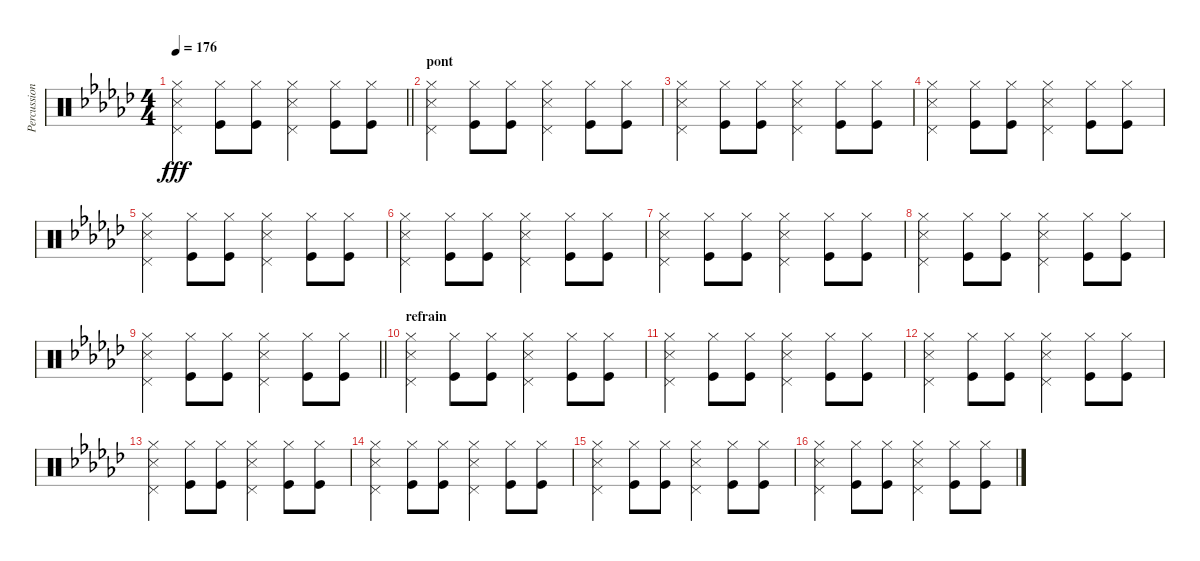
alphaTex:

\track ("Percussions" "Percussion") {instrument percussion}
\staff {score}
\articulation defaults
\ts (4 4)
\tempo 176
\clef neutral
\barLineRight lightlight
\ks gb
("Snare (side stick) 3" "Pedal Hi-Hat (hit)" "Hi-Hat (closed)").4{dy fff} ("Kick (hit)" "Hi-Hat (closed)").8 ("Kick (hit)" "Hi-Hat (closed)").8 ("Snare (side stick) 3" "Pedal Hi-Hat (hit)" "Hi-Hat (closed)").4 ("Kick (hit)" "Hi-Hat (closed)").8 ("Kick (hit)" "Hi-Hat (closed)").8 |
\section ("" "pont")
("Snare (side stick) 3" "Pedal Hi-Hat (hit)" "Hi-Hat (closed)").4 ("Kick (hit)" "Hi-Hat (closed)").8 ("Kick (hit)" "Hi-Hat (closed)").8 ("Snare (side stick) 3" "Pedal Hi-Hat (hit)" "Hi-Hat (closed)").4 ("Kick (hit)" "Hi-Hat (closed)").8 ("Kick (hit)" "Hi-Hat (closed)").8 |
("Snare (side stick) 3" "Pedal Hi-Hat (hit)" "Hi-Hat (closed)").4 ("Kick (hit)" "Hi-Hat (closed)").8 ("Kick (hit)" "Hi-Hat (closed)").8 ("Snare (side stick) 3" "Pedal Hi-Hat (hit)" "Hi-Hat (closed)").4 ("Kick (hit)" "Hi-Hat (closed)").8 ("Kick (hit)" "Hi-Hat (closed)").8 |
("Snare (side stick) 3" "Pedal Hi-Hat (hit)" "Hi-Hat (closed)").4 ("Kick (hit)" "Hi-Hat (closed)").8 ("Kick (hit)" "Hi-Hat (closed)").8 ("Snare (side stick) 3" "Pedal Hi-Hat (hit)" "Hi-Hat (closed)").4 ("Kick (hit)" "Hi-Hat (closed)").8 ("Kick (hit)" "Hi-Hat (closed)").8 |
("Snare (side stick) 3" "Pedal Hi-Hat (hit)" "Hi-Hat (closed)").4 ("Kick (hit)" "Hi-Hat (closed)").8 ("Kick (hit)" "Hi-Hat (closed)").8 ("Snare (side stick) 3" "Pedal Hi-Hat (hit)" "Hi-Hat (closed)").4 ("Kick (hit)" "Hi-Hat (closed)").8 ("Kick (hit)" "Hi-Hat (closed)").8 |
("Snare (side stick) 3" "Pedal Hi-Hat (hit)" "Hi-Hat (closed)").4 ("Kick (hit)" "Hi-Hat (closed)").8 ("Kick (hit)" "Hi-Hat (closed)").8 ("Snare (side stick) 3" "Pedal Hi-Hat (hit)" "Hi-Hat (closed)").4 ("Kick (hit)" "Hi-Hat (closed)").8 ("Kick (hit)" "Hi-Hat (closed)").8 |
("Snare (side stick) 3" "Pedal Hi-Hat (hit)" "Hi-Hat (closed)").4 ("Kick (hit)" "Hi-Hat (closed)").8 ("Kick (hit)" "Hi-Hat (closed)").8 ("Snare (side stick) 3" "Pedal Hi-Hat (hit)" "Hi-Hat (closed)").4 ("Kick (hit)" "Hi-Hat (closed)").8 ("Kick (hit)" "Hi-Hat (closed)").8 |
("Snare (side stick) 3" "Pedal Hi-Hat (hit)" "Hi-Hat (closed)").4 ("Kick (hit)" "Hi-Hat (closed)").8 ("Kick (hit)" "Hi-Hat (closed)").8 ("Snare (side stick) 3" "Pedal Hi-Hat (hit)" "Hi-Hat (closed)").4 ("Kick (hit)" "Hi-Hat (closed)").8 ("Kick (hit)" "Hi-Hat (closed)").8 |
\barLineRight lightlight
("Snare (side stick) 3" "Pedal Hi-Hat (hit)" "Hi-Hat (closed)").4 ("Kick (hit)" "Hi-Hat (closed)").8 ("Kick (hit)" "Hi-Hat (closed)").8 ("Snare (side stick) 3" "Pedal Hi-Hat (hit)" "Hi-Hat (closed)").4 ("Kick (hit)" "Hi-Hat (closed)").8 ("Kick (hit)" "Hi-Hat (closed)").8 |
\section ("" "refrain")
("Snare (side stick) 3" "Pedal Hi-Hat (hit)" "Hi-Hat (closed)").4 ("Kick (hit)" "Hi-Hat (closed)").8 ("Kick (hit)" "Hi-Hat (closed)").8 ("Snare (side stick) 3" "Pedal Hi-Hat (hit)" "Hi-Hat (closed)").4 ("Kick (hit)" "Hi-Hat (closed)").8 ("Kick (hit)" "Hi-Hat (closed)").8 |
("Snare (side stick) 3" "Pedal Hi-Hat (hit)" "Hi-Hat (closed)").4 ("Kick (hit)" "Hi-Hat (closed)").8 ("Kick (hit)" "Hi-Hat (closed)").8 ("Snare (side stick) 3" "Pedal Hi-Hat (hit)" "Hi-Hat (closed)").4 ("Kick (hit)" "Hi-Hat (closed)").8 ("Kick (hit)" "Hi-Hat (closed)").8 |
("Snare (side stick) 3" "Pedal Hi-Hat (hit)" "Hi-Hat (closed)").4 ("Kick (hit)" "Hi-Hat (closed)").8 ("Kick (hit)" "Hi-Hat (closed)").8 ("Snare (side stick) 3" "Pedal Hi-Hat (hit)" "Hi-Hat (closed)").4 ("Kick (hit)" "Hi-Hat (closed)").8 ("Kick (hit)" "Hi-Hat (closed)").8 |
("Snare (side stick) 3" "Pedal Hi-Hat (hit)" "Hi-Hat (closed)").4 ("Kick (hit)" "Hi-Hat (closed)").8 ("Kick (hit)" "Hi-Hat (closed)").8 ("Snare (side stick) 3" "Pedal Hi-Hat (hit)" "Hi-Hat (closed)").4 ("Kick (hit)" "Hi-Hat (closed)").8 ("Kick (hit)" "Hi-Hat (closed)").8 |
("Snare (side stick) 3" "Pedal Hi-Hat (hit)" "Hi-Hat (closed)").4 ("Kick (hit)" "Hi-Hat (closed)").8 ("Kick (hit)" "Hi-Hat (closed)").8 ("Snare (side stick) 3" "Pedal Hi-Hat (hit)" "Hi-Hat (closed)").4 ("Kick (hit)" "Hi-Hat (closed)").8 ("Kick (hit)" "Hi-Hat (closed)").8 |
("Snare (side stick) 3" "Pedal Hi-Hat (hit)" "Hi-Hat (closed)").4 ("Kick (hit)" "Hi-Hat (closed)").8 ("Kick (hit)" "Hi-Hat (closed)").8 ("Snare (side stick) 3" "Pedal Hi-Hat (hit)" "Hi-Hat (closed)").4 ("Kick (hit)" "Hi-Hat (closed)").8 ("Kick (hit)" "Hi-Hat (closed)").8 |
("Snare (side stick) 3" "Pedal Hi-Hat (hit)" "Hi-Hat (closed)").4 ("Kick (hit)" "Hi-Hat (closed)").8 ("Kick (hit)" "Hi-Hat (closed)").8 ("Snare (side stick) 3" "Pedal Hi-Hat (hit)" "Hi-Hat (closed)").4 ("Kick (hit)" "Hi-Hat (closed)").8 ("Kick (hit)" "Hi-Hat (closed)").8
